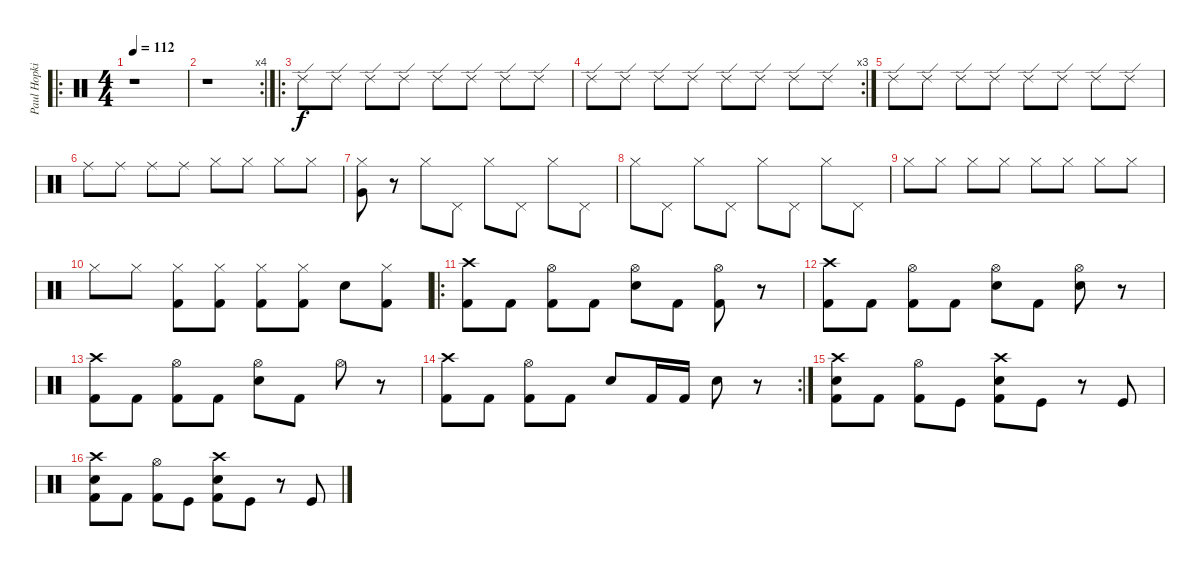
\track ("Paul Hopkins" "Paul Hopki") {instrument percussion}
\staff {score}
\articulation defaults
\ro
\ts (4 4)
\tempo 112
\clef neutral
\ks c
r.1{dy f} |
\rc 4
r.1 |
\ro "Ride (edge) 2".8 "Ride (edge) 2".8 "Ride (edge) 2".8 "Ride (edge) 2".8 "Ride (edge) 2".8 "Ride (edge) 2".8 "Ride (edge) 2".8 "Ride (edge) 2".8
|
\rc 3 "Ride (edge) 2".8 "Ride (edge) 2".8 "Ride (edge) 2".8 "Ride (edge) 2".8 "Ride (edge) 2".8 "Ride (edge) 2".8 "Ride (edge) 2".8 "Ride (edge) 2".8
|
"Ride (edge) 2".8{volume 14} "Ride (edge) 2".8 "Ride (edge) 2".8 "Ride (edge) 2".8 "Ride (edge) 2".8 "Ride (edge) 2".8 "Ride (edge) 2".8 "Ride (edge) 2".8 |
"Ride (middle)".8{volume 16} "Ride (middle)".8 "Ride (middle)".8 "Ride (middle)".8 "Hi-Hat (closed)".8{volume 14} "Hi-Hat (closed)".8 "Hi-Hat (closed)".8 "Hi-Hat (closed)".8 |
("Hi-Hat (closed)" "Very Low Tom (hit)").8{volume 16} r.8{volume 14} "Hi-Hat (closed)".8 "Pedal Hi-Hat (hit)".8 "Hi-Hat (closed)".8 "Pedal Hi-Hat (hit)".8 "Hi-Hat (closed)".8 "Pedal Hi-Hat (hit)".8 |
"Hi-Hat (closed)".8 "Pedal Hi-Hat (hit)".8 "Hi-Hat (closed)".8 "Pedal Hi-Hat (hit)".8 "Hi-Hat (closed)".8{volume 15} "Pedal Hi-Hat (hit)".8 "Hi-Hat (closed)".8 "Pedal Hi-Hat (hit)".8 |
"Hi-Hat (closed)".8 "Hi-Hat (closed)".8 "Hi-Hat (closed)".8 "Hi-Hat (closed)".8 "Hi-Hat (closed)".8 "Hi-Hat (closed)".8 "Hi-Hat (closed)".8 "Hi-Hat (closed)".8 |
"Hi-Hat (closed)".8 "Hi-Hat (closed)".8 ("Kick (hit) 2" "Hi-Hat (closed)").8 ("Kick (hit) 2" "Hi-Hat (closed)").8{volume 16} ("Kick (hit) 2" "Hi-Hat (closed)").8 ("Kick (hit) 2" "Hi-Hat (closed)").8 "Electric Snare (hit)".8 ("Kick (hit) 2" "Hi-Hat (closed)").8 |
\ro
("Kick (hit) 2" "Crash high (hit)").8{volume 16} "Kick (hit) 2".8 ("Kick (hit) 2" "Hi-Hat (open)").8 "Kick (hit) 2".8 ("Electric Snare (hit)" "Hi-Hat (open)").8 "Kick (hit) 2".8 ("Kick (hit) 2" "Hi-Hat (open)").8 r.8 |
("Kick (hit) 2" "Crash high (hit)").8 "Kick (hit) 2".8 ("Kick (hit) 2" "Hi-Hat (open)").8 "Kick (hit) 2".8 ("Electric Snare (hit)" "Hi-Hat (open)").8 "Kick (hit) 2".8 ("Electric Snare (hit)" "Hi-Hat (open)").8 r.8 |
("Kick (hit) 2" "Crash high (hit)").8 "Kick (hit) 2".8 ("Kick (hit) 2" "Hi-Hat (open)").8 "Kick (hit) 2".8 ("Electric Snare (hit)" "Hi-Hat (open)").8 "Kick (hit) 2".8 "Hi-Hat (open)".8 r.8 |
\rc 2
("Kick (hit) 2" "Crash high (hit)").8 "Kick (hit) 2".8 ("Kick (hit) 2" "Hi-Hat (open)").8 "Kick (hit) 2".8 "Electric Snare (hit)".8 "Kick (hit) 2".16 "Kick (hit) 2".16 "Electric Snare (hit)".8 r.8 |
("Kick (hit) 2" "Electric Snare (hit)" "Crash high (hit)").8 "Kick (hit) 2".8 ("Kick (hit) 2" "Hi-Hat (open)").8 "Kick (hit)".8 ("Kick (hit) 2" "Electric Snare (hit)" "Crash high (hit)").8 "Kick (hit)".8 r.8 "Kick (hit)".8 |
("Kick (hit) 2" "Electric Snare (hit)" "Crash high (hit)").8 "Kick (hit) 2".8 ("Kick (hit) 2" "Hi-Hat (open)").8 "Kick (hit)".8 ("Kick (hit) 2" "Electric Snare (hit)" "Crash high (hit)").8 "Kick (hit)".8 r.8 "Kick (hit)".8
